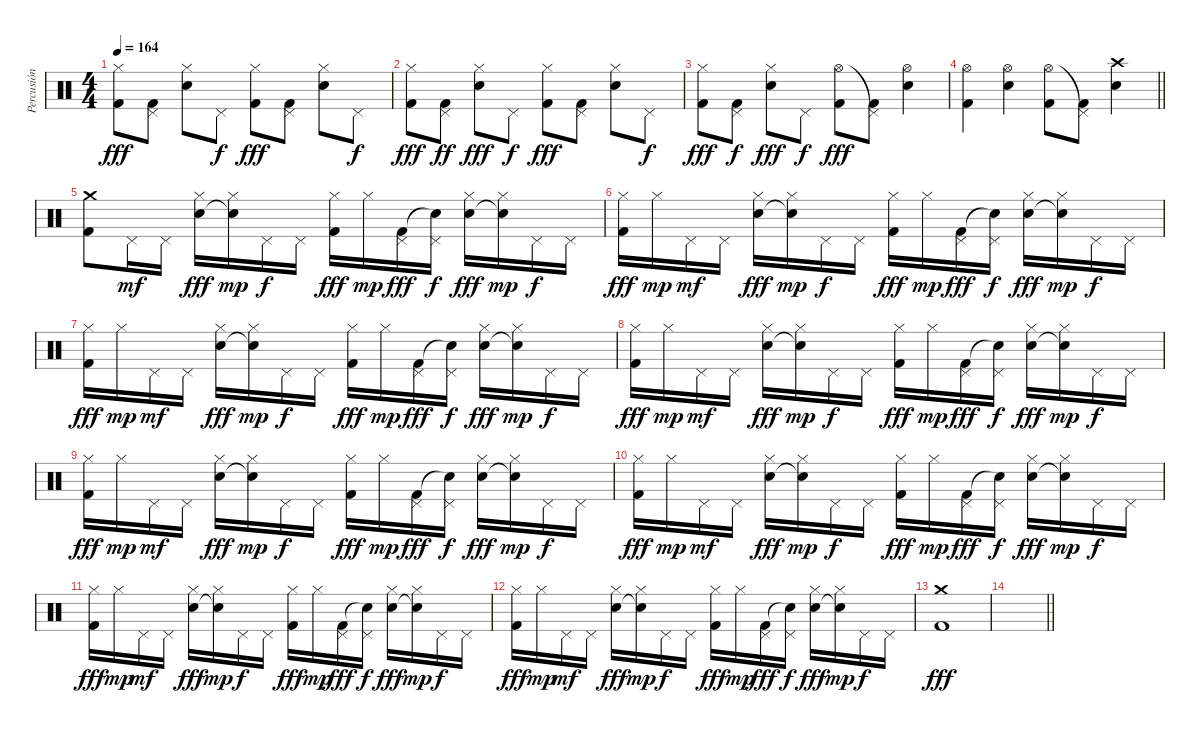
\track ("Percusión" "Percusión") {instrument percussion}
\staff {score}
\articulation defaults
\ts (4 4)
\tempo 164
\clef neutral
\ks c
("Hi-Hat (closed)" "Kick (hit) 2").8{dy fff} ("Pedal Hi-Hat (hit)" "Kick (hit) 2").8 ("Hi-Hat (closed)" "Snare (hit) 2").8 "Pedal Hi-Hat (hit)".8{dy f} ("Hi-Hat (closed)" "Kick (hit) 2").8{dy fff} ("Pedal Hi-Hat (hit)" "Kick (hit) 2").8 ("Hi-Hat (closed)" "Snare (hit) 2").8 "Pedal Hi-Hat (hit)".8{dy f} |
("Hi-Hat (closed)" "Kick (hit) 2").8{dy fff} ("Pedal Hi-Hat (hit)" "Kick (hit) 2").8{dy ff} ("Hi-Hat (closed)" "Snare (hit) 2").8{dy fff} "Pedal Hi-Hat (hit)".8{dy f} ("Hi-Hat (closed)" "Kick (hit) 2").8{dy fff} ("Pedal Hi-Hat (hit)" "Kick (hit) 2").8 ("Hi-Hat (closed)" "Snare (hit) 2").8 "Pedal Hi-Hat (hit)".8{dy f} |
("Hi-Hat (closed)" "Kick (hit) 2").8{dy fff} ("Pedal Hi-Hat (hit)" "Kick (hit) 2").8{dy f} ("Hi-Hat (closed)" "Snare (hit) 2").8{dy fff} "Pedal Hi-Hat (hit)".8{dy f} ("Hi-Hat (open)" "Kick (hit) 2").8{dy fff} ("Pedal Hi-Hat (hit)"{t} "Kick (hit) 2").8 ("Hi-Hat (open)" "Snare (hit) 2").4 |
\barLineRight lightlight
("Hi-Hat (open)" "Kick (hit) 2").4 ("Hi-Hat (open)" "Snare (hit) 2").4 ("Hi-Hat (open)" "Kick (hit) 2").8 ("Pedal Hi-Hat (hit)"{t} "Kick (hit) 2").8 ("Crash high (hit)" "Snare (hit) 2").4 |
("Crash medium (hit)" "Kick (hit) 2").8 "Pedal Hi-Hat (hit)".16{dy mf} "Pedal Hi-Hat (hit)".16 ("Hi-Hat (closed)" "Snare (hit) 2").16{dy fff} ("Hi-Hat (closed)" "Snare (hit)"{t}).16{dy mp} "Pedal Hi-Hat (hit)".16{dy f} "Pedal Hi-Hat (hit)".16 ("Hi-Hat (closed)" "Kick (hit) 2").16{dy fff} "Hi-Hat (closed)".16{dy mp} ("Pedal Hi-Hat (hit)" "Kick (hit) 2").16{dy fff} ("Pedal Hi-Hat (hit)" "Snare (hit)"{t}).16{dy f} ("Hi-Hat (closed)" "Snare (hit) 2").16{dy fff} ("Hi-Hat (closed)" "Snare (hit)"{t}).16{dy mp} "Pedal Hi-Hat (hit)".16{dy f} "Pedal Hi-Hat (hit)".16 |
("Hi-Hat (closed)" "Kick (hit) 2").16{dy fff} "Hi-Hat (closed)".16{dy mp} "Pedal Hi-Hat (hit)".16{dy mf} "Pedal Hi-Hat (hit)".16 ("Hi-Hat (closed)" "Snare (hit) 2").16{dy fff} ("Hi-Hat (closed)" "Snare (hit)"{t}).16{dy mp} "Pedal Hi-Hat (hit)".16{dy f} "Pedal Hi-Hat (hit)".16 ("Hi-Hat (closed)" "Kick (hit) 2").16{dy fff} "Hi-Hat (closed)".16{dy mp} ("Pedal Hi-Hat (hit)" "Kick (hit) 2").16{dy fff} ("Pedal Hi-Hat (hit)" "Snare (hit)"{t}).16{dy f} ("Hi-Hat (closed)" "Snare (hit) 2").16{dy fff} ("Hi-Hat (closed)" "Snare (hit)"{t}).16{dy mp} "Pedal Hi-Hat (hit)".16{dy f} "Pedal Hi-Hat (hit)".16 |
("Hi-Hat (closed)" "Kick (hit) 2").16{dy fff} "Hi-Hat (closed)".16{dy mp} "Pedal Hi-Hat (hit)".16{dy mf} "Pedal Hi-Hat (hit)".16 ("Hi-Hat (closed)" "Snare (hit) 2").16{dy fff} ("Hi-Hat (closed)" "Snare (hit)"{t}).16{dy mp} "Pedal Hi-Hat (hit)".16{dy f} "Pedal Hi-Hat (hit)".16 ("Hi-Hat (closed)" "Kick (hit) 2").16{dy fff} "Hi-Hat (closed)".16{dy mp} ("Pedal Hi-Hat (hit)" "Kick (hit) 2").16{dy fff} ("Pedal Hi-Hat (hit)" "Snare (hit)"{t}).16{dy f} ("Hi-Hat (closed)" "Snare (hit) 2").16{dy fff} ("Hi-Hat (closed)" "Snare (hit)"{t}).16{dy mp} "Pedal Hi-Hat (hit)".16{dy f} "Pedal Hi-Hat (hit)".16 |
("Hi-Hat (closed)" "Kick (hit) 2").16{dy fff} "Hi-Hat (closed)".16{dy mp} "Pedal Hi-Hat (hit)".16{dy mf} "Pedal Hi-Hat (hit)".16 ("Hi-Hat (closed)" "Snare (hit) 2").16{dy fff} ("Hi-Hat (closed)" "Snare (hit)"{t}).16{dy mp} "Pedal Hi-Hat (hit)".16{dy f} "Pedal Hi-Hat (hit)".16 ("Hi-Hat (closed)" "Kick (hit) 2").16{dy fff} "Hi-Hat (closed)".16{dy mp} ("Pedal Hi-Hat (hit)" "Kick (hit) 2").16{dy fff} ("Pedal Hi-Hat (hit)" "Snare (hit)"{t}).16{dy f} ("Hi-Hat (closed)" "Snare (hit) 2").16{dy fff} ("Hi-Hat (closed)" "Snare (hit)"{t}).16{dy mp} "Pedal Hi-Hat (hit)".16{dy f} "Pedal Hi-Hat (hit)".16 |
("Hi-Hat (closed)" "Kick (hit) 2").16{dy fff} "Hi-Hat (closed)".16{dy mp} "Pedal Hi-Hat (hit)".16{dy mf} "Pedal Hi-Hat (hit)".16 ("Hi-Hat (closed)" "Snare (hit) 2").16{dy fff} ("Hi-Hat (closed)" "Snare (hit)"{t}).16{dy mp} "Pedal Hi-Hat (hit)".16{dy f} "Pedal Hi-Hat (hit)".16 ("Hi-Hat (closed)" "Kick (hit) 2").16{dy fff} "Hi-Hat (closed)".16{dy mp} ("Pedal Hi-Hat (hit)" "Kick (hit) 2").16{dy fff} ("Pedal Hi-Hat (hit)" "Snare (hit)"{t}).16{dy f} ("Hi-Hat (closed)" "Snare (hit) 2").16{dy fff} ("Hi-Hat (closed)" "Snare (hit)"{t}).16{dy mp} "Pedal Hi-Hat (hit)".16{dy f} "Pedal Hi-Hat (hit)".16 |
("Hi-Hat (closed)" "Kick (hit) 2").16{dy fff} "Hi-Hat (closed)".16{dy mp} "Pedal Hi-Hat (hit)".16{dy mf} "Pedal Hi-Hat (hit)".16 ("Hi-Hat (closed)" "Snare (hit) 2").16{dy fff} ("Hi-Hat (closed)" "Snare (hit)"{t}).16{dy mp} "Pedal Hi-Hat (hit)".16{dy f} "Pedal Hi-Hat (hit)".16 ("Hi-Hat (closed)" "Kick (hit) 2").16{dy fff} "Hi-Hat (closed)".16{dy mp} ("Pedal Hi-Hat (hit)" "Kick (hit) 2").16{dy fff} ("Pedal Hi-Hat (hit)" "Snare (hit)"{t}).16{dy f} ("Hi-Hat (closed)" "Snare (hit) 2").16{dy fff} ("Hi-Hat (closed)" "Snare (hit)"{t}).16{dy mp} "Pedal Hi-Hat (hit)".16{dy f} "Pedal Hi-Hat (hit)".16 |
("Hi-Hat (closed)" "Kick (hit) 2").16{dy fff} "Hi-Hat (closed)".16{dy mp} "Pedal Hi-Hat (hit)".16{dy mf} "Pedal Hi-Hat (hit)".16 ("Hi-Hat (closed)" "Snare (hit) 2").16{dy fff} ("Hi-Hat (closed)" "Snare (hit)"{t}).16{dy mp} "Pedal Hi-Hat (hit)".16{dy f} "Pedal Hi-Hat (hit)".16 ("Hi-Hat (closed)" "Kick (hit) 2").16{dy fff} "Hi-Hat (closed)".16{dy mp} ("Pedal Hi-Hat (hit)" "Kick (hit) 2").16{dy fff} ("Pedal Hi-Hat (hit)" "Snare (hit)"{t}).16{dy f} ("Hi-Hat (closed)" "Snare (hit) 2").16{dy fff} ("Hi-Hat (closed)" "Snare (hit)"{t}).16{dy mp} "Pedal Hi-Hat (hit)".16{dy f} "Pedal Hi-Hat (hit)".16 |
("Hi-Hat (closed)" "Kick (hit) 2").16{dy fff} "Hi-Hat (closed)".16{dy mp} "Pedal Hi-Hat (hit)".16{dy mf} "Pedal Hi-Hat (hit)".16 ("Hi-Hat (closed)" "Snare (hit) 2").16{dy fff} ("Hi-Hat (closed)" "Snare (hit)"{t}).16{dy mp} "Pedal Hi-Hat (hit)".16{dy f} "Pedal Hi-Hat (hit)".16 ("Hi-Hat (closed)" "Kick (hit) 2").16{dy fff} "Hi-Hat (closed)".16{dy mp} ("Pedal Hi-Hat (hit)" "Kick (hit) 2").16{dy fff} ("Pedal Hi-Hat (hit)" "Snare (hit)"{t}).16{dy f} ("Hi-Hat (closed)" "Snare (hit) 2").16{dy fff} ("Hi-Hat (closed)" "Snare (hit)"{t}).16{dy mp} "Pedal Hi-Hat (hit)".16{dy f} "Pedal Hi-Hat (hit)".16 |
("Crash medium (hit)" "Kick (hit) 2").1{dy fff} |
\barLineRight lightlight
